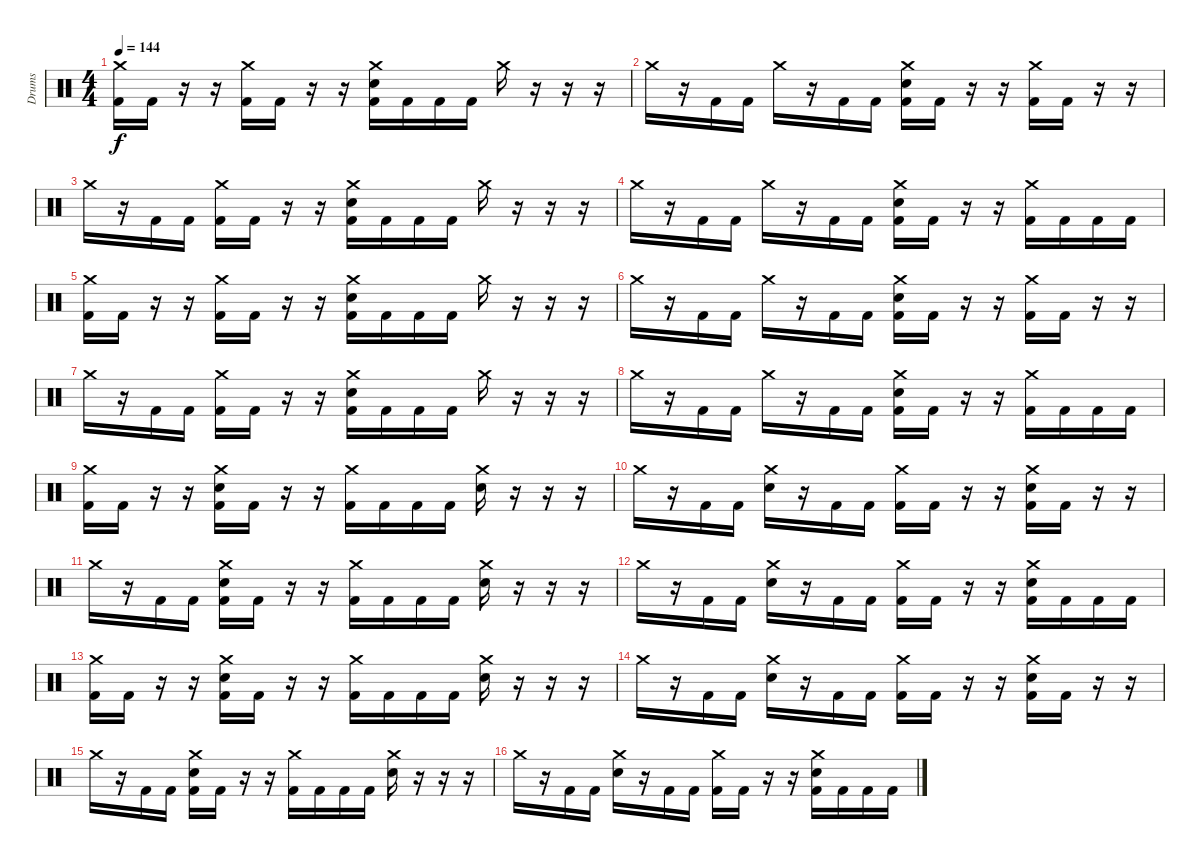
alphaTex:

\track ("Drums" "Drums") {instrument percussion}
\staff {score}
\articulation defaults
\ts (4 4)
\tempo 144
\clef neutral
\ks c
("Crash medium (hit)" "Kick (hit) 2").16{dy f} "Kick (hit) 2".16 r.16 r.16 ("Crash medium (hit)" "Kick (hit) 2").16 "Kick (hit) 2".16 r.16 r.16 ("Crash medium (hit)" "Electric Snare (hit)" "Kick (hit) 2").16 "Kick (hit) 2".16 "Kick (hit) 2".16 "Kick (hit) 2".16 "Crash medium (hit)".16 r.16 r.16 r.16 |
"Crash medium (hit)".16 r.16 "Kick (hit) 2".16 "Kick (hit) 2".16 "Crash medium (hit)".16 r.16 "Kick (hit) 2".16 "Kick (hit) 2".16 ("Crash medium (hit)" "Electric Snare (hit)" "Kick (hit) 2").16 "Kick (hit) 2".16 r.16 r.16 ("Crash medium (hit)" "Kick (hit) 2").16 "Kick (hit) 2".16 r.16 r.16 |
"Crash medium (hit)".16 r.16 "Kick (hit) 2".16 "Kick (hit) 2".16 ("Crash medium (hit)" "Kick (hit) 2").16 "Kick (hit) 2".16 r.16 r.16 ("Crash medium (hit)" "Electric Snare (hit)" "Kick (hit) 2").16 "Kick (hit) 2".16 "Kick (hit) 2".16 "Kick (hit) 2".16 "Crash medium (hit)".16 r.16 r.16 r.16 |
"Crash medium (hit)".16 r.16 "Kick (hit) 2".16 "Kick (hit) 2".16 "Crash medium (hit)".16 r.16 "Kick (hit) 2".16 "Kick (hit) 2".16 ("Crash medium (hit)" "Electric Snare (hit)" "Kick (hit) 2").16 "Kick (hit) 2".16 r.16 r.16 ("Crash medium (hit)" "Kick (hit) 2").16 "Kick (hit) 2".16 "Kick (hit) 2".16 "Kick (hit) 2".16 |
("Crash medium (hit)" "Kick (hit) 2").16 "Kick (hit) 2".16 r.16 r.16 ("Crash medium (hit)" "Kick (hit) 2").16 "Kick (hit) 2".16 r.16 r.16 ("Crash medium (hit)" "Electric Snare (hit)" "Kick (hit) 2").16 "Kick (hit) 2".16 "Kick (hit) 2".16 "Kick (hit) 2".16 "Crash medium (hit)".16 r.16 r.16 r.16 |
"Crash medium (hit)".16 r.16 "Kick (hit) 2".16 "Kick (hit) 2".16 "Crash medium (hit)".16 r.16 "Kick (hit) 2".16 "Kick (hit) 2".16 ("Crash medium (hit)" "Electric Snare (hit)" "Kick (hit) 2").16 "Kick (hit) 2".16 r.16 r.16 ("Crash medium (hit)" "Kick (hit) 2").16 "Kick (hit) 2".16 r.16 r.16 |
"Crash medium (hit)".16 r.16 "Kick (hit) 2".16 "Kick (hit) 2".16 ("Crash medium (hit)" "Kick (hit) 2").16 "Kick (hit) 2".16 r.16 r.16 ("Crash medium (hit)" "Electric Snare (hit)" "Kick (hit) 2").16 "Kick (hit) 2".16 "Kick (hit) 2".16 "Kick (hit) 2".16 "Crash medium (hit)".16 r.16 r.16 r.16 |
"Crash medium (hit)".16 r.16 "Kick (hit) 2".16 "Kick (hit) 2".16 "Crash medium (hit)".16 r.16 "Kick (hit) 2".16 "Kick (hit) 2".16 ("Crash medium (hit)" "Electric Snare (hit)" "Kick (hit) 2").16 "Kick (hit) 2".16 r.16 r.16 ("Crash medium (hit)" "Kick (hit) 2").16 "Kick (hit) 2".16 "Kick (hit) 2".16 "Kick (hit) 2".16 |
("Crash medium (hit)" "Kick (hit) 2").16 "Kick (hit) 2".16 r.16 r.16 ("Crash medium (hit)" "Electric Snare (hit)" "Kick (hit) 2").16 "Kick (hit) 2".16 r.16 r.16 ("Crash medium (hit)" "Kick (hit) 2").16 "Kick (hit) 2".16 "Kick (hit) 2".16 "Kick (hit) 2".16 ("Crash medium (hit)" "Electric Snare (hit)").16 r.16 r.16 r.16 |
"Crash medium (hit)".16 r.16 "Kick (hit) 2".16 "Kick (hit) 2".16 ("Crash medium (hit)" "Electric Snare (hit)").16 r.16 "Kick (hit) 2".16 "Kick (hit) 2".16 ("Crash medium (hit)" "Kick (hit) 2").16 "Kick (hit) 2".16 r.16 r.16 ("Crash medium (hit)" "Electric Snare (hit)" "Kick (hit) 2").16 "Kick (hit) 2".16 r.16 r.16 |
"Crash medium (hit)".16 r.16 "Kick (hit) 2".16 "Kick (hit) 2".16 ("Crash medium (hit)" "Electric Snare (hit)" "Kick (hit) 2").16 "Kick (hit) 2".16 r.16 r.16 ("Crash medium (hit)" "Kick (hit) 2").16 "Kick (hit) 2".16 "Kick (hit) 2".16 "Kick (hit) 2".16 ("Crash medium (hit)" "Electric Snare (hit)").16 r.16 r.16 r.16 |
"Crash medium (hit)".16 r.16 "Kick (hit) 2".16 "Kick (hit) 2".16 ("Crash medium (hit)" "Electric Snare (hit)").16 r.16 "Kick (hit) 2".16 "Kick (hit) 2".16 ("Crash medium (hit)" "Kick (hit) 2").16 "Kick (hit) 2".16 r.16 r.16 ("Crash medium (hit)" "Electric Snare (hit)" "Kick (hit) 2").16 "Kick (hit) 2".16 "Kick (hit) 2".16 "Kick (hit) 2".16 |
("Crash medium (hit)" "Kick (hit) 2").16 "Kick (hit) 2".16 r.16 r.16 ("Crash medium (hit)" "Electric Snare (hit)" "Kick (hit) 2").16 "Kick (hit) 2".16 r.16 r.16 ("Crash medium (hit)" "Kick (hit) 2").16 "Kick (hit) 2".16 "Kick (hit) 2".16 "Kick (hit) 2".16 ("Crash medium (hit)" "Electric Snare (hit)").16 r.16 r.16 r.16 |
"Crash medium (hit)".16 r.16 "Kick (hit) 2".16 "Kick (hit) 2".16 ("Crash medium (hit)" "Electric Snare (hit)").16 r.16 "Kick (hit) 2".16 "Kick (hit) 2".16 ("Crash medium (hit)" "Kick (hit) 2").16 "Kick (hit) 2".16 r.16 r.16 ("Crash medium (hit)" "Electric Snare (hit)" "Kick (hit) 2").16 "Kick (hit) 2".16 r.16 r.16 |
"Crash medium (hit)".16 r.16 "Kick (hit) 2".16 "Kick (hit) 2".16 ("Crash medium (hit)" "Electric Snare (hit)" "Kick (hit) 2").16 "Kick (hit) 2".16 r.16 r.16 ("Crash medium (hit)" "Kick (hit) 2").16 "Kick (hit) 2".16 "Kick (hit) 2".16 "Kick (hit) 2".16 ("Crash medium (hit)" "Electric Snare (hit)").16 r.16 r.16 r.16 |
"Crash medium (hit)".16 r.16 "Kick (hit) 2".16 "Kick (hit) 2".16 ("Crash medium (hit)" "Electric Snare (hit)").16 r.16 "Kick (hit) 2".16 "Kick (hit) 2".16 ("Crash medium (hit)" "Kick (hit) 2").16 "Kick (hit) 2".16 r.16 r.16 ("Crash medium (hit)" "Electric Snare (hit)" "Kick (hit) 2").16 "Kick (hit) 2".16 "Kick (hit) 2".16 "Kick (hit) 2".16
